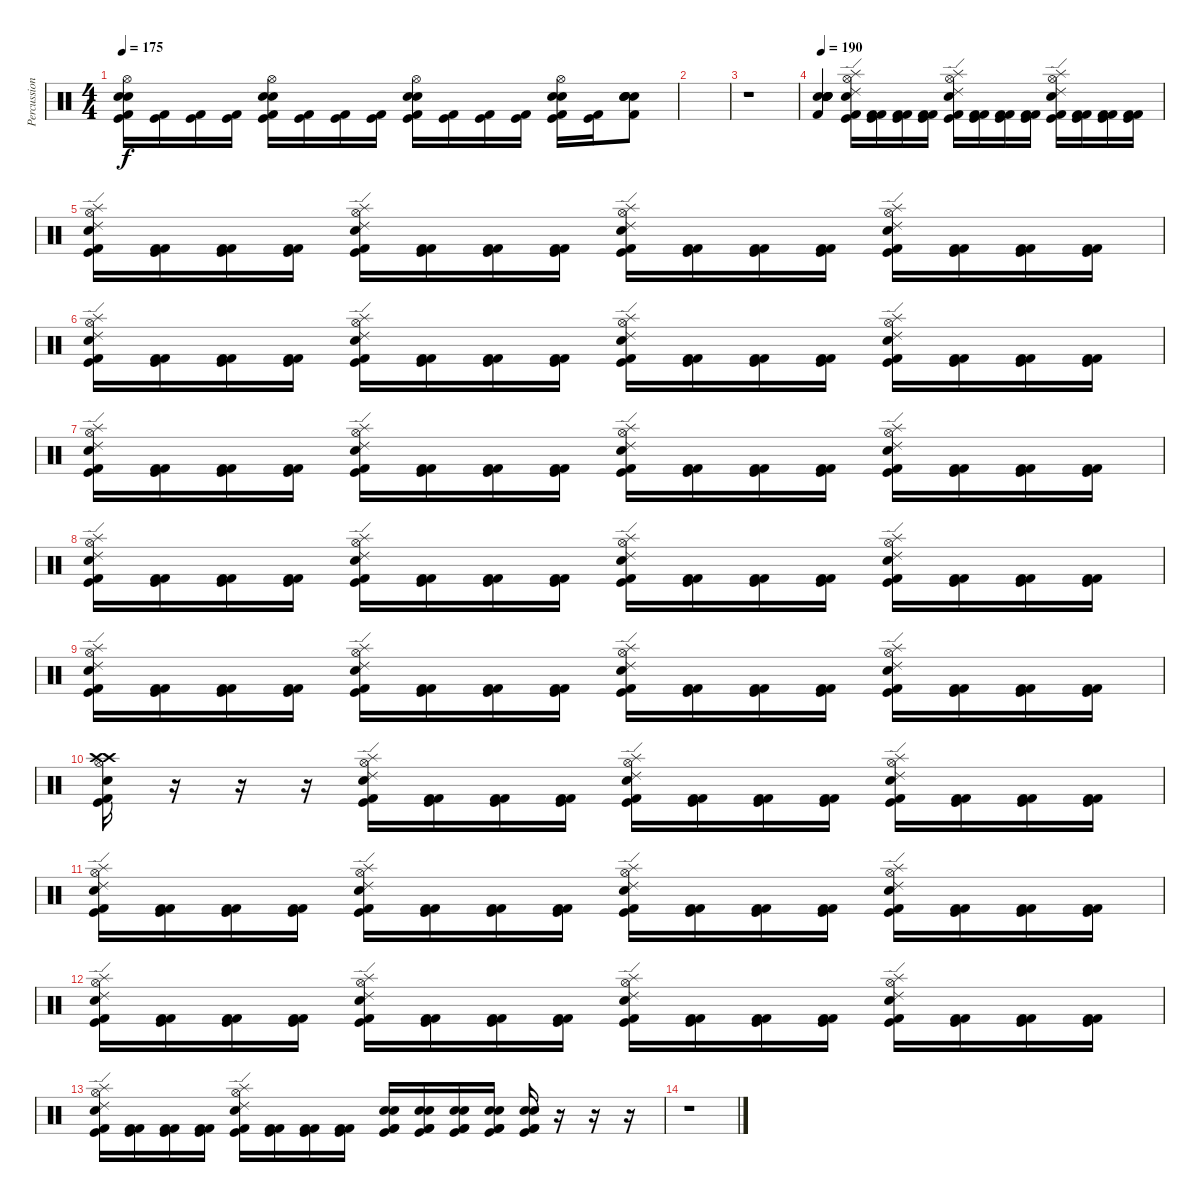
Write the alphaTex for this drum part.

\track ("Percussion" "Percussion") {instrument percussion}
\staff {score}
\articulation defaults
\ts (4 4)
\tempo 175
\clef neutral
\ks c
("Hi-Hat (open)" "Electric Snare (hit)" "Snare (hit) 2" "Kick (hit) 2" "Kick (hit)").16{dy f} ("Kick (hit) 2" "Kick (hit)").16 ("Kick (hit) 2" "Kick (hit)").16 ("Kick (hit) 2" "Kick (hit)").16 ("Hi-Hat (open)" "Electric Snare (hit)" "Snare (hit) 2" "Kick (hit) 2" "Kick (hit)").16 ("Kick (hit) 2" "Kick (hit)").16 ("Kick (hit) 2" "Kick (hit)").16 ("Kick (hit) 2" "Kick (hit)").16 ("Hi-Hat (open)" "Electric Snare (hit)" "Snare (hit) 2" "Kick (hit) 2" "Kick (hit)").16 ("Kick (hit) 2" "Kick (hit)").16 ("Kick (hit) 2" "Kick (hit)").16 ("Kick (hit) 2" "Kick (hit)").16 ("Hi-Hat (open)" "Electric Snare (hit)" "Snare (hit) 2" "Kick (hit) 2" "Kick (hit)").16 ("Kick (hit) 2" "Kick (hit)").16 ("Kick (hit) 2" "Electric Snare (hit)" "Electric Snare (hit)" "Electric Snare (hit)" "Snare (hit) 2").8 |
|
r.1 |
\tempo 190
("Kick (hit) 2" "Electric Snare (hit)" "Electric Snare (hit)" "Electric Snare (hit)" "Electric Snare (hit)" "Snare (hit) 2").4 ("Ride (edge) 2" "Splash (hit)" "Hi-Hat (open)" "Electric Snare (hit)" "Kick (hit) 2" "Kick (hit)").16 ("Kick (hit) 2" "Kick (hit) 2" "Kick (hit)").16 ("Kick (hit) 2" "Kick (hit) 2" "Kick (hit)").16 ("Kick (hit) 2" "Kick (hit) 2" "Kick (hit)").16 ("Ride (edge) 2" "Splash (hit)" "Hi-Hat (open)" "Electric Snare (hit)" "Kick (hit) 2" "Kick (hit)").16 ("Kick (hit) 2" "Kick (hit) 2" "Kick (hit)").16 ("Kick (hit) 2" "Kick (hit) 2" "Kick (hit)").16 ("Kick (hit) 2" "Kick (hit) 2" "Kick (hit)").16 ("Ride (edge) 2" "Splash (hit)" "Hi-Hat (open)" "Electric Snare (hit)" "Kick (hit) 2" "Kick (hit)").16 ("Kick (hit) 2" "Kick (hit) 2" "Kick (hit)").16 ("Kick (hit) 2" "Kick (hit) 2" "Kick (hit)").16 ("Kick (hit) 2" "Kick (hit) 2" "Kick (hit)").16 |
("Ride (edge) 2" "Splash (hit)" "Hi-Hat (open)" "Electric Snare (hit)" "Kick (hit) 2" "Kick (hit)").16 ("Kick (hit) 2" "Kick (hit) 2" "Kick (hit)").16 ("Kick (hit) 2" "Kick (hit) 2" "Kick (hit)").16 ("Kick (hit) 2" "Kick (hit) 2" "Kick (hit)").16 ("Ride (edge) 2" "Splash (hit)" "Hi-Hat (open)" "Electric Snare (hit)" "Kick (hit) 2" "Kick (hit)").16 ("Kick (hit) 2" "Kick (hit) 2" "Kick (hit)").16 ("Kick (hit) 2" "Kick (hit) 2" "Kick (hit)").16 ("Kick (hit) 2" "Kick (hit) 2" "Kick (hit)").16 ("Ride (edge) 2" "Splash (hit)" "Hi-Hat (open)" "Electric Snare (hit)" "Kick (hit) 2" "Kick (hit)").16 ("Kick (hit) 2" "Kick (hit) 2" "Kick (hit)").16 ("Kick (hit) 2" "Kick (hit) 2" "Kick (hit)").16 ("Kick (hit) 2" "Kick (hit) 2" "Kick (hit)").16 ("Ride (edge) 2" "Splash (hit)" "Hi-Hat (open)" "Electric Snare (hit)" "Kick (hit) 2" "Kick (hit)").16 ("Kick (hit) 2" "Kick (hit) 2" "Kick (hit)").16 ("Kick (hit) 2" "Kick (hit) 2" "Kick (hit)").16 ("Kick (hit) 2" "Kick (hit) 2" "Kick (hit)").16 |
("Ride (edge) 2" "Splash (hit)" "Hi-Hat (open)" "Electric Snare (hit)" "Kick (hit) 2" "Kick (hit)").16 ("Kick (hit) 2" "Kick (hit) 2" "Kick (hit)").16 ("Kick (hit) 2" "Kick (hit) 2" "Kick (hit)").16 ("Kick (hit) 2" "Kick (hit) 2" "Kick (hit)").16 ("Ride (edge) 2" "Splash (hit)" "Hi-Hat (open)" "Electric Snare (hit)" "Kick (hit) 2" "Kick (hit)").16 ("Kick (hit) 2" "Kick (hit) 2" "Kick (hit)").16 ("Kick (hit) 2" "Kick (hit) 2" "Kick (hit)").16 ("Kick (hit) 2" "Kick (hit) 2" "Kick (hit)").16 ("Ride (edge) 2" "Splash (hit)" "Hi-Hat (open)" "Electric Snare (hit)" "Kick (hit) 2" "Kick (hit)").16 ("Kick (hit) 2" "Kick (hit) 2" "Kick (hit)").16 ("Kick (hit) 2" "Kick (hit) 2" "Kick (hit)").16 ("Kick (hit) 2" "Kick (hit) 2" "Kick (hit)").16 ("Ride (edge) 2" "Splash (hit)" "Hi-Hat (open)" "Electric Snare (hit)" "Kick (hit) 2" "Kick (hit)").16 ("Kick (hit) 2" "Kick (hit) 2" "Kick (hit)").16 ("Kick (hit) 2" "Kick (hit) 2" "Kick (hit)").16 ("Kick (hit) 2" "Kick (hit) 2" "Kick (hit)").16 |
("Ride (edge) 2" "Splash (hit)" "Hi-Hat (open)" "Electric Snare (hit)" "Kick (hit) 2" "Kick (hit)").16 ("Kick (hit) 2" "Kick (hit) 2" "Kick (hit)").16 ("Kick (hit) 2" "Kick (hit) 2" "Kick (hit)").16 ("Kick (hit) 2" "Kick (hit) 2" "Kick (hit)").16 ("Ride (edge) 2" "Splash (hit)" "Hi-Hat (open)" "Electric Snare (hit)" "Kick (hit) 2" "Kick (hit)").16 ("Kick (hit) 2" "Kick (hit) 2" "Kick (hit)").16 ("Kick (hit) 2" "Kick (hit) 2" "Kick (hit)").16 ("Kick (hit) 2" "Kick (hit) 2" "Kick (hit)").16 ("Ride (edge) 2" "Splash (hit)" "Hi-Hat (open)" "Electric Snare (hit)" "Kick (hit) 2" "Kick (hit)").16 ("Kick (hit) 2" "Kick (hit) 2" "Kick (hit)").16 ("Kick (hit) 2" "Kick (hit) 2" "Kick (hit)").16 ("Kick (hit) 2" "Kick (hit) 2" "Kick (hit)").16 ("Ride (edge) 2" "Splash (hit)" "Hi-Hat (open)" "Electric Snare (hit)" "Kick (hit) 2" "Kick (hit)").16 ("Kick (hit) 2" "Kick (hit) 2" "Kick (hit)").16 ("Kick (hit) 2" "Kick (hit) 2" "Kick (hit)").16 ("Kick (hit) 2" "Kick (hit) 2" "Kick (hit)").16 |
("Ride (edge) 2" "Splash (hit)" "Hi-Hat (open)" "Electric Snare (hit)" "Kick (hit) 2" "Kick (hit)").16 ("Kick (hit) 2" "Kick (hit) 2" "Kick (hit)").16 ("Kick (hit) 2" "Kick (hit) 2" "Kick (hit)").16 ("Kick (hit) 2" "Kick (hit) 2" "Kick (hit)").16 ("Ride (edge) 2" "Splash (hit)" "Hi-Hat (open)" "Electric Snare (hit)" "Kick (hit) 2" "Kick (hit)").16 ("Kick (hit) 2" "Kick (hit) 2" "Kick (hit)").16 ("Kick (hit) 2" "Kick (hit) 2" "Kick (hit)").16 ("Kick (hit) 2" "Kick (hit) 2" "Kick (hit)").16 ("Ride (edge) 2" "Splash (hit)" "Hi-Hat (open)" "Electric Snare (hit)" "Kick (hit) 2" "Kick (hit)").16 ("Kick (hit) 2" "Kick (hit) 2" "Kick (hit)").16 ("Kick (hit) 2" "Kick (hit) 2" "Kick (hit)").16 ("Kick (hit) 2" "Kick (hit) 2" "Kick (hit)").16 ("Ride (edge) 2" "Splash (hit)" "Hi-Hat (open)" "Electric Snare (hit)" "Kick (hit) 2" "Kick (hit)").16 ("Kick (hit) 2" "Kick (hit) 2" "Kick (hit)").16 ("Kick (hit) 2" "Kick (hit) 2" "Kick (hit)").16 ("Kick (hit) 2" "Kick (hit) 2" "Kick (hit)").16 |
("Ride (edge) 2" "Splash (hit)" "Hi-Hat (open)" "Electric Snare (hit)" "Kick (hit) 2" "Kick (hit)").16 ("Kick (hit) 2" "Kick (hit) 2" "Kick (hit)").16 ("Kick (hit) 2" "Kick (hit) 2" "Kick (hit)").16 ("Kick (hit) 2" "Kick (hit) 2" "Kick (hit)").16 ("Ride (edge) 2" "Splash (hit)" "Hi-Hat (open)" "Electric Snare (hit)" "Kick (hit) 2" "Kick (hit)").16 ("Kick (hit) 2" "Kick (hit) 2" "Kick (hit)").16 ("Kick (hit) 2" "Kick (hit) 2" "Kick (hit)").16 ("Kick (hit) 2" "Kick (hit) 2" "Kick (hit)").16 ("Ride (edge) 2" "Splash (hit)" "Hi-Hat (open)" "Electric Snare (hit)" "Kick (hit) 2" "Kick (hit)").16 ("Kick (hit) 2" "Kick (hit) 2" "Kick (hit)").16 ("Kick (hit) 2" "Kick (hit) 2" "Kick (hit)").16 ("Kick (hit) 2" "Kick (hit) 2" "Kick (hit)").16 ("Ride (edge) 2" "Splash (hit)" "Hi-Hat (open)" "Electric Snare (hit)" "Kick (hit) 2" "Kick (hit)").16 ("Kick (hit) 2" "Kick (hit) 2" "Kick (hit)").16 ("Kick (hit) 2" "Kick (hit) 2" "Kick (hit)").16 ("Kick (hit) 2" "Kick (hit) 2" "Kick (hit)").16 |
("Crash high (hit)" "Crash high (hit)" "Hi-Hat (open)" "Electric Snare (hit)" "Kick (hit) 2" "Kick (hit)").16 r.16 r.16 r.16 ("Ride (edge) 2" "Splash (hit)" "Hi-Hat (open)" "Electric Snare (hit)" "Kick (hit) 2" "Kick (hit)").16 ("Kick (hit) 2" "Kick (hit) 2" "Kick (hit)").16 ("Kick (hit) 2" "Kick (hit) 2" "Kick (hit)").16 ("Kick (hit) 2" "Kick (hit) 2" "Kick (hit)").16 ("Ride (edge) 2" "Splash (hit)" "Hi-Hat (open)" "Electric Snare (hit)" "Kick (hit) 2" "Kick (hit)").16 ("Kick (hit) 2" "Kick (hit) 2" "Kick (hit)").16 ("Kick (hit) 2" "Kick (hit) 2" "Kick (hit)").16 ("Kick (hit) 2" "Kick (hit) 2" "Kick (hit)").16 ("Ride (edge) 2" "Splash (hit)" "Hi-Hat (open)" "Electric Snare (hit)" "Kick (hit) 2" "Kick (hit)").16 ("Kick (hit) 2" "Kick (hit) 2" "Kick (hit)").16 ("Kick (hit) 2" "Kick (hit) 2" "Kick (hit)").16 ("Kick (hit) 2" "Kick (hit) 2" "Kick (hit)").16 |
("Ride (edge) 2" "Splash (hit)" "Hi-Hat (open)" "Electric Snare (hit)" "Kick (hit) 2" "Kick (hit)").16 ("Kick (hit) 2" "Kick (hit) 2" "Kick (hit)").16 ("Kick (hit) 2" "Kick (hit) 2" "Kick (hit)").16 ("Kick (hit) 2" "Kick (hit) 2" "Kick (hit)").16 ("Ride (edge) 2" "Splash (hit)" "Hi-Hat (open)" "Electric Snare (hit)" "Kick (hit) 2" "Kick (hit)").16 ("Kick (hit) 2" "Kick (hit) 2" "Kick (hit)").16 ("Kick (hit) 2" "Kick (hit) 2" "Kick (hit)").16 ("Kick (hit) 2" "Kick (hit) 2" "Kick (hit)").16 ("Ride (edge) 2" "Splash (hit)" "Hi-Hat (open)" "Electric Snare (hit)" "Kick (hit) 2" "Kick (hit)").16 ("Kick (hit) 2" "Kick (hit) 2" "Kick (hit)").16 ("Kick (hit) 2" "Kick (hit) 2" "Kick (hit)").16 ("Kick (hit) 2" "Kick (hit) 2" "Kick (hit)").16 ("Ride (edge) 2" "Splash (hit)" "Hi-Hat (open)" "Electric Snare (hit)" "Kick (hit) 2" "Kick (hit)").16 ("Kick (hit) 2" "Kick (hit) 2" "Kick (hit)").16 ("Kick (hit) 2" "Kick (hit) 2" "Kick (hit)").16 ("Kick (hit) 2" "Kick (hit) 2" "Kick (hit)").16 |
("Ride (edge) 2" "Splash (hit)" "Hi-Hat (open)" "Electric Snare (hit)" "Kick (hit) 2" "Kick (hit)").16 ("Kick (hit) 2" "Kick (hit) 2" "Kick (hit)").16 ("Kick (hit) 2" "Kick (hit) 2" "Kick (hit)").16 ("Kick (hit) 2" "Kick (hit) 2" "Kick (hit)").16 ("Ride (edge) 2" "Splash (hit)" "Hi-Hat (open)" "Electric Snare (hit)" "Kick (hit) 2" "Kick (hit)").16 ("Kick (hit) 2" "Kick (hit) 2" "Kick (hit)").16 ("Kick (hit) 2" "Kick (hit) 2" "Kick (hit)").16 ("Kick (hit) 2" "Kick (hit) 2" "Kick (hit)").16 ("Ride (edge) 2" "Splash (hit)" "Hi-Hat (open)" "Electric Snare (hit)" "Kick (hit) 2" "Kick (hit)").16 ("Kick (hit) 2" "Kick (hit) 2" "Kick (hit)").16 ("Kick (hit) 2" "Kick (hit) 2" "Kick (hit)").16 ("Kick (hit) 2" "Kick (hit) 2" "Kick (hit)").16 ("Ride (edge) 2" "Splash (hit)" "Hi-Hat (open)" "Electric Snare (hit)" "Kick (hit) 2" "Kick (hit)").16 ("Kick (hit) 2" "Kick (hit) 2" "Kick (hit)").16 ("Kick (hit) 2" "Kick (hit) 2" "Kick (hit)").16 ("Kick (hit) 2" "Kick (hit) 2" "Kick (hit)").16 |
("Ride (edge) 2" "Splash (hit)" "Hi-Hat (open)" "Electric Snare (hit)" "Kick (hit) 2" "Kick (hit)").16 ("Kick (hit) 2" "Kick (hit) 2" "Kick (hit)").16 ("Kick (hit) 2" "Kick (hit) 2" "Kick (hit)").16 ("Kick (hit) 2" "Kick (hit) 2" "Kick (hit)").16 ("Ride (edge) 2" "Splash (hit)" "Hi-Hat (open)" "Electric Snare (hit)" "Kick (hit) 2" "Kick (hit)").16 ("Kick (hit) 2" "Kick (hit) 2" "Kick (hit)").16 ("Kick (hit) 2" "Kick (hit) 2" "Kick (hit)").16 ("Kick (hit) 2" "Kick (hit) 2" "Kick (hit)").16 ("Electric Snare (hit)" "Electric Snare (hit)" "Kick (hit) 2" "Kick (hit) 2" "Kick (hit)").16 ("Electric Snare (hit)" "Electric Snare (hit)" "Kick (hit) 2" "Kick (hit) 2" "Kick (hit)").16 ("Electric Snare (hit)" "Electric Snare (hit)" "Kick (hit) 2" "Kick (hit) 2" "Kick (hit)").16 ("Electric Snare (hit)" "Electric Snare (hit)" "Kick (hit) 2" "Kick (hit) 2" "Kick (hit)").16 ("Electric Snare (hit)" "Electric Snare (hit)" "Kick (hit) 2" "Kick (hit) 2" "Kick (hit)").16 r.16 r.16 r.16 |
r.1
